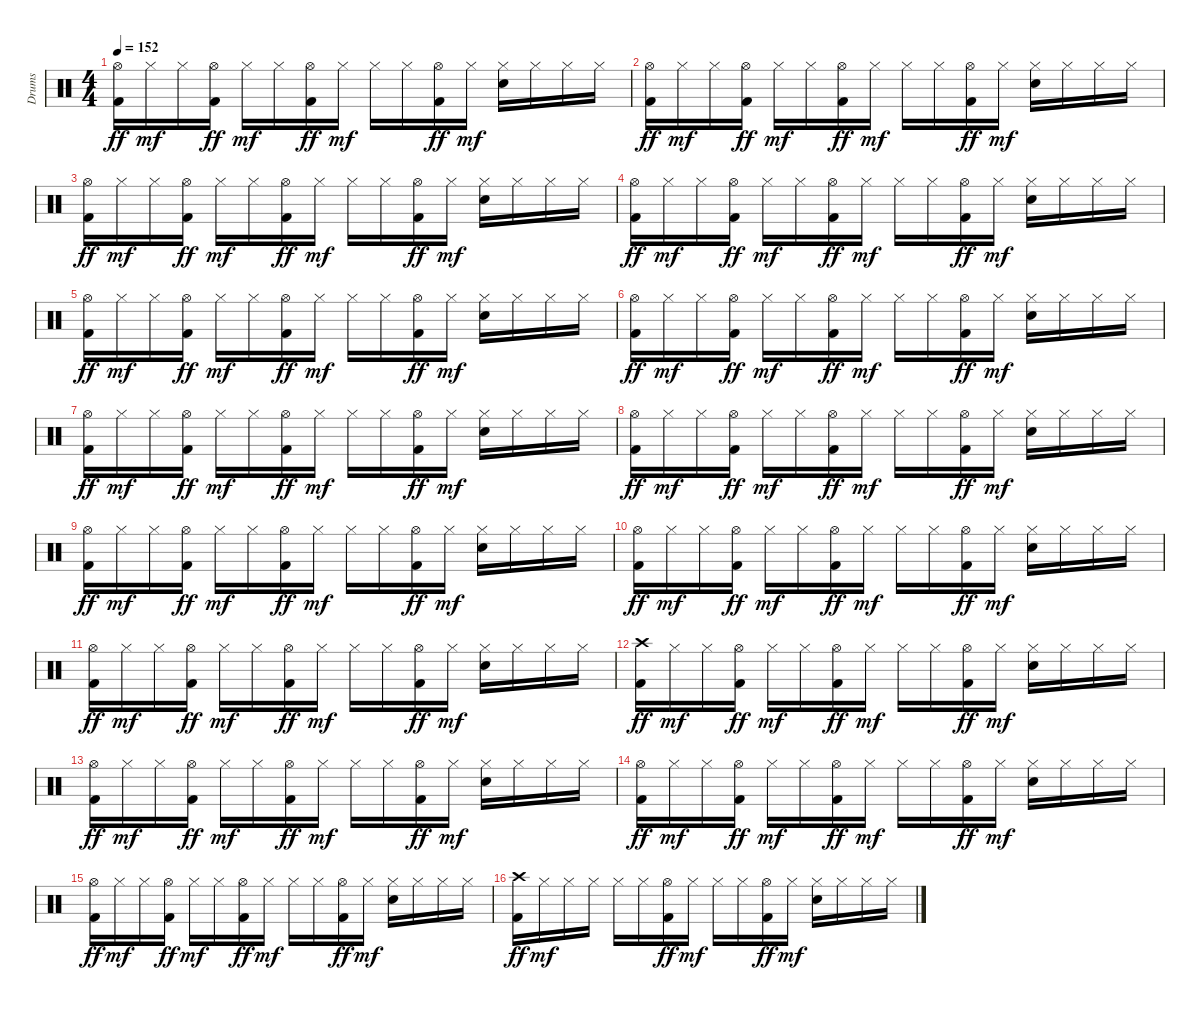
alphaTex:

\track ("Drums" "Drums") {instrument percussion}
\staff {score}
\articulation defaults
\ts (4 4)
\tempo 152
\clef neutral
\ks c
("Hi-Hat (open)" "Kick (hit) 2").16{dy ff} "Hi-Hat (closed)".16{dy mf} "Hi-Hat (closed)".16 ("Hi-Hat (open)" "Kick (hit) 2").16{dy ff} "Hi-Hat (closed)".16{dy mf} "Hi-Hat (closed)".16 ("Hi-Hat (open)" "Kick (hit) 2").16{dy ff} "Hi-Hat (closed)".16{dy mf} "Hi-Hat (closed)".16 "Hi-Hat (closed)".16 ("Hi-Hat (open)" "Kick (hit) 2").16{dy ff} "Hi-Hat (closed)".16{dy mf} ("Hi-Hat (closed)" "Snare (hit) 2").16 "Hi-Hat (closed)".16 "Hi-Hat (closed)".16 "Hi-Hat (closed)".16 |
("Hi-Hat (open)" "Kick (hit) 2").16{dy ff} "Hi-Hat (closed)".16{dy mf} "Hi-Hat (closed)".16 ("Hi-Hat (open)" "Kick (hit) 2").16{dy ff} "Hi-Hat (closed)".16{dy mf} "Hi-Hat (closed)".16 ("Hi-Hat (open)" "Kick (hit) 2").16{dy ff} "Hi-Hat (closed)".16{dy mf} "Hi-Hat (closed)".16 "Hi-Hat (closed)".16 ("Hi-Hat (open)" "Kick (hit) 2").16{dy ff} "Hi-Hat (closed)".16{dy mf} ("Hi-Hat (closed)" "Snare (hit) 2").16 "Hi-Hat (closed)".16 "Hi-Hat (closed)".16 "Hi-Hat (closed)".16 |
("Hi-Hat (open)" "Kick (hit) 2").16{dy ff} "Hi-Hat (closed)".16{dy mf} "Hi-Hat (closed)".16 ("Hi-Hat (open)" "Kick (hit) 2").16{dy ff} "Hi-Hat (closed)".16{dy mf} "Hi-Hat (closed)".16 ("Hi-Hat (open)" "Kick (hit) 2").16{dy ff} "Hi-Hat (closed)".16{dy mf} "Hi-Hat (closed)".16 "Hi-Hat (closed)".16 ("Hi-Hat (open)" "Kick (hit) 2").16{dy ff} "Hi-Hat (closed)".16{dy mf} ("Hi-Hat (closed)" "Snare (hit) 2").16 "Hi-Hat (closed)".16 "Hi-Hat (closed)".16 "Hi-Hat (closed)".16 |
("Hi-Hat (open)" "Kick (hit) 2").16{dy ff} "Hi-Hat (closed)".16{dy mf} "Hi-Hat (closed)".16 ("Hi-Hat (open)" "Kick (hit) 2").16{dy ff} "Hi-Hat (closed)".16{dy mf} "Hi-Hat (closed)".16 ("Hi-Hat (open)" "Kick (hit) 2").16{dy ff} "Hi-Hat (closed)".16{dy mf} "Hi-Hat (closed)".16 "Hi-Hat (closed)".16 ("Hi-Hat (open)" "Kick (hit) 2").16{dy ff} "Hi-Hat (closed)".16{dy mf} ("Hi-Hat (closed)" "Snare (hit) 2").16 "Hi-Hat (closed)".16 "Hi-Hat (closed)".16 "Hi-Hat (closed)".16 |
("Hi-Hat (open)" "Kick (hit) 2").16{dy ff} "Hi-Hat (closed)".16{dy mf} "Hi-Hat (closed)".16 ("Hi-Hat (open)" "Kick (hit) 2").16{dy ff} "Hi-Hat (closed)".16{dy mf} "Hi-Hat (closed)".16 ("Hi-Hat (open)" "Kick (hit) 2").16{dy ff} "Hi-Hat (closed)".16{dy mf} "Hi-Hat (closed)".16 "Hi-Hat (closed)".16 ("Hi-Hat (open)" "Kick (hit) 2").16{dy ff} "Hi-Hat (closed)".16{dy mf} ("Hi-Hat (closed)" "Snare (hit) 2").16 "Hi-Hat (closed)".16 "Hi-Hat (closed)".16 "Hi-Hat (closed)".16 |
("Hi-Hat (open)" "Kick (hit) 2").16{dy ff} "Hi-Hat (closed)".16{dy mf} "Hi-Hat (closed)".16 ("Hi-Hat (open)" "Kick (hit) 2").16{dy ff} "Hi-Hat (closed)".16{dy mf} "Hi-Hat (closed)".16 ("Hi-Hat (open)" "Kick (hit) 2").16{dy ff} "Hi-Hat (closed)".16{dy mf} "Hi-Hat (closed)".16 "Hi-Hat (closed)".16 ("Hi-Hat (open)" "Kick (hit) 2").16{dy ff} "Hi-Hat (closed)".16{dy mf} ("Hi-Hat (closed)" "Snare (hit) 2").16 "Hi-Hat (closed)".16 "Hi-Hat (closed)".16 "Hi-Hat (closed)".16 |
("Hi-Hat (open)" "Kick (hit) 2").16{dy ff} "Hi-Hat (closed)".16{dy mf} "Hi-Hat (closed)".16 ("Hi-Hat (open)" "Kick (hit) 2").16{dy ff} "Hi-Hat (closed)".16{dy mf} "Hi-Hat (closed)".16 ("Hi-Hat (open)" "Kick (hit) 2").16{dy ff} "Hi-Hat (closed)".16{dy mf} "Hi-Hat (closed)".16 "Hi-Hat (closed)".16 ("Hi-Hat (open)" "Kick (hit) 2").16{dy ff} "Hi-Hat (closed)".16{dy mf} ("Hi-Hat (closed)" "Snare (hit) 2").16 "Hi-Hat (closed)".16 "Hi-Hat (closed)".16 "Hi-Hat (closed)".16 |
("Hi-Hat (open)" "Kick (hit) 2").16{dy ff} "Hi-Hat (closed)".16{dy mf} "Hi-Hat (closed)".16 ("Hi-Hat (open)" "Kick (hit) 2").16{dy ff} "Hi-Hat (closed)".16{dy mf} "Hi-Hat (closed)".16 ("Hi-Hat (open)" "Kick (hit) 2").16{dy ff} "Hi-Hat (closed)".16{dy mf} "Hi-Hat (closed)".16 "Hi-Hat (closed)".16 ("Hi-Hat (open)" "Kick (hit) 2").16{dy ff} "Hi-Hat (closed)".16{dy mf} ("Hi-Hat (closed)" "Snare (hit) 2").16 "Hi-Hat (closed)".16 "Hi-Hat (closed)".16 "Hi-Hat (closed)".16 |
("Hi-Hat (open)" "Kick (hit) 2").16{dy ff} "Hi-Hat (closed)".16{dy mf} "Hi-Hat (closed)".16 ("Hi-Hat (open)" "Kick (hit) 2").16{dy ff} "Hi-Hat (closed)".16{dy mf} "Hi-Hat (closed)".16 ("Hi-Hat (open)" "Kick (hit) 2").16{dy ff} "Hi-Hat (closed)".16{dy mf} "Hi-Hat (closed)".16 "Hi-Hat (closed)".16 ("Hi-Hat (open)" "Kick (hit) 2").16{dy ff} "Hi-Hat (closed)".16{dy mf} ("Hi-Hat (closed)" "Snare (hit) 2").16 "Hi-Hat (closed)".16 "Hi-Hat (closed)".16 "Hi-Hat (closed)".16 |
("Hi-Hat (open)" "Kick (hit) 2").16{dy ff} "Hi-Hat (closed)".16{dy mf} "Hi-Hat (closed)".16 ("Hi-Hat (open)" "Kick (hit) 2").16{dy ff} "Hi-Hat (closed)".16{dy mf} "Hi-Hat (closed)".16 ("Hi-Hat (open)" "Kick (hit) 2").16{dy ff} "Hi-Hat (closed)".16{dy mf} "Hi-Hat (closed)".16 "Hi-Hat (closed)".16 ("Hi-Hat (open)" "Kick (hit) 2").16{dy ff} "Hi-Hat (closed)".16{dy mf} ("Hi-Hat (closed)" "Snare (hit) 2").16 "Hi-Hat (closed)".16 "Hi-Hat (closed)".16 "Hi-Hat (closed)".16 |
("Hi-Hat (open)" "Kick (hit) 2").16{dy ff} "Hi-Hat (closed)".16{dy mf} "Hi-Hat (closed)".16 ("Hi-Hat (open)" "Kick (hit) 2").16{dy ff} "Hi-Hat (closed)".16{dy mf} "Hi-Hat (closed)".16 ("Hi-Hat (open)" "Kick (hit) 2").16{dy ff} "Hi-Hat (closed)".16{dy mf} "Hi-Hat (closed)".16 "Hi-Hat (closed)".16 ("Hi-Hat (open)" "Kick (hit) 2").16{dy ff} "Hi-Hat (closed)".16{dy mf} ("Hi-Hat (closed)" "Snare (hit) 2").16 "Hi-Hat (closed)".16 "Hi-Hat (closed)".16 "Hi-Hat (closed)".16 |
("Crash high (hit)" "Kick (hit) 2").16{dy ff} "Hi-Hat (closed)".16{dy mf} "Hi-Hat (closed)".16 ("Hi-Hat (open)" "Kick (hit) 2").16{dy ff} "Hi-Hat (closed)".16{dy mf} "Hi-Hat (closed)".16 ("Hi-Hat (open)" "Kick (hit) 2").16{dy ff} "Hi-Hat (closed)".16{dy mf} "Hi-Hat (closed)".16 "Hi-Hat (closed)".16 ("Hi-Hat (open)" "Kick (hit) 2").16{dy ff} "Hi-Hat (closed)".16{dy mf} ("Hi-Hat (closed)" "Snare (hit) 2").16 "Hi-Hat (closed)".16 "Hi-Hat (closed)".16 "Hi-Hat (closed)".16 |
("Hi-Hat (open)" "Kick (hit) 2").16{dy ff} "Hi-Hat (closed)".16{dy mf} "Hi-Hat (closed)".16 ("Hi-Hat (open)" "Kick (hit) 2").16{dy ff} "Hi-Hat (closed)".16{dy mf} "Hi-Hat (closed)".16 ("Hi-Hat (open)" "Kick (hit) 2").16{dy ff} "Hi-Hat (closed)".16{dy mf} "Hi-Hat (closed)".16 "Hi-Hat (closed)".16 ("Hi-Hat (open)" "Kick (hit) 2").16{dy ff} "Hi-Hat (closed)".16{dy mf} ("Hi-Hat (closed)" "Snare (hit) 2").16 "Hi-Hat (closed)".16 "Hi-Hat (closed)".16 "Hi-Hat (closed)".16 |
("Hi-Hat (open)" "Kick (hit) 2").16{dy ff} "Hi-Hat (closed)".16{dy mf} "Hi-Hat (closed)".16 ("Hi-Hat (open)" "Kick (hit) 2").16{dy ff} "Hi-Hat (closed)".16{dy mf} "Hi-Hat (closed)".16 ("Hi-Hat (open)" "Kick (hit) 2").16{dy ff} "Hi-Hat (closed)".16{dy mf} "Hi-Hat (closed)".16 "Hi-Hat (closed)".16 ("Hi-Hat (open)" "Kick (hit) 2").16{dy ff} "Hi-Hat (closed)".16{dy mf} ("Hi-Hat (closed)" "Snare (hit) 2").16 "Hi-Hat (closed)".16 "Hi-Hat (closed)".16 "Hi-Hat (closed)".16 |
("Hi-Hat (open)" "Kick (hit) 2").16{dy ff} "Hi-Hat (closed)".16{dy mf} "Hi-Hat (closed)".16 ("Hi-Hat (open)" "Kick (hit) 2").16{dy ff} "Hi-Hat (closed)".16{dy mf} "Hi-Hat (closed)".16 ("Hi-Hat (open)" "Kick (hit) 2").16{dy ff} "Hi-Hat (closed)".16{dy mf} "Hi-Hat (closed)".16 "Hi-Hat (closed)".16 ("Hi-Hat (open)" "Kick (hit) 2").16{dy ff} "Hi-Hat (closed)".16{dy mf} ("Hi-Hat (closed)" "Snare (hit) 2").16 "Hi-Hat (closed)".16 "Hi-Hat (closed)".16 "Hi-Hat (closed)".16 |
("Crash high (hit)" "Kick (hit) 2").16{dy ff} "Hi-Hat (closed)".16{dy mf} "Hi-Hat (closed)".16 "Hi-Hat (closed)".16 "Hi-Hat (closed)".16 "Hi-Hat (closed)".16 ("Hi-Hat (open)" "Kick (hit) 2").16{dy ff} "Hi-Hat (closed)".16{dy mf} "Hi-Hat (closed)".16 "Hi-Hat (closed)".16 ("Hi-Hat (open)" "Kick (hit) 2").16{dy ff} "Hi-Hat (closed)".16{dy mf} ("Hi-Hat (closed)" "Snare (hit) 2").16 "Hi-Hat (closed)".16 "Hi-Hat (closed)".16 "Hi-Hat (closed)".16
